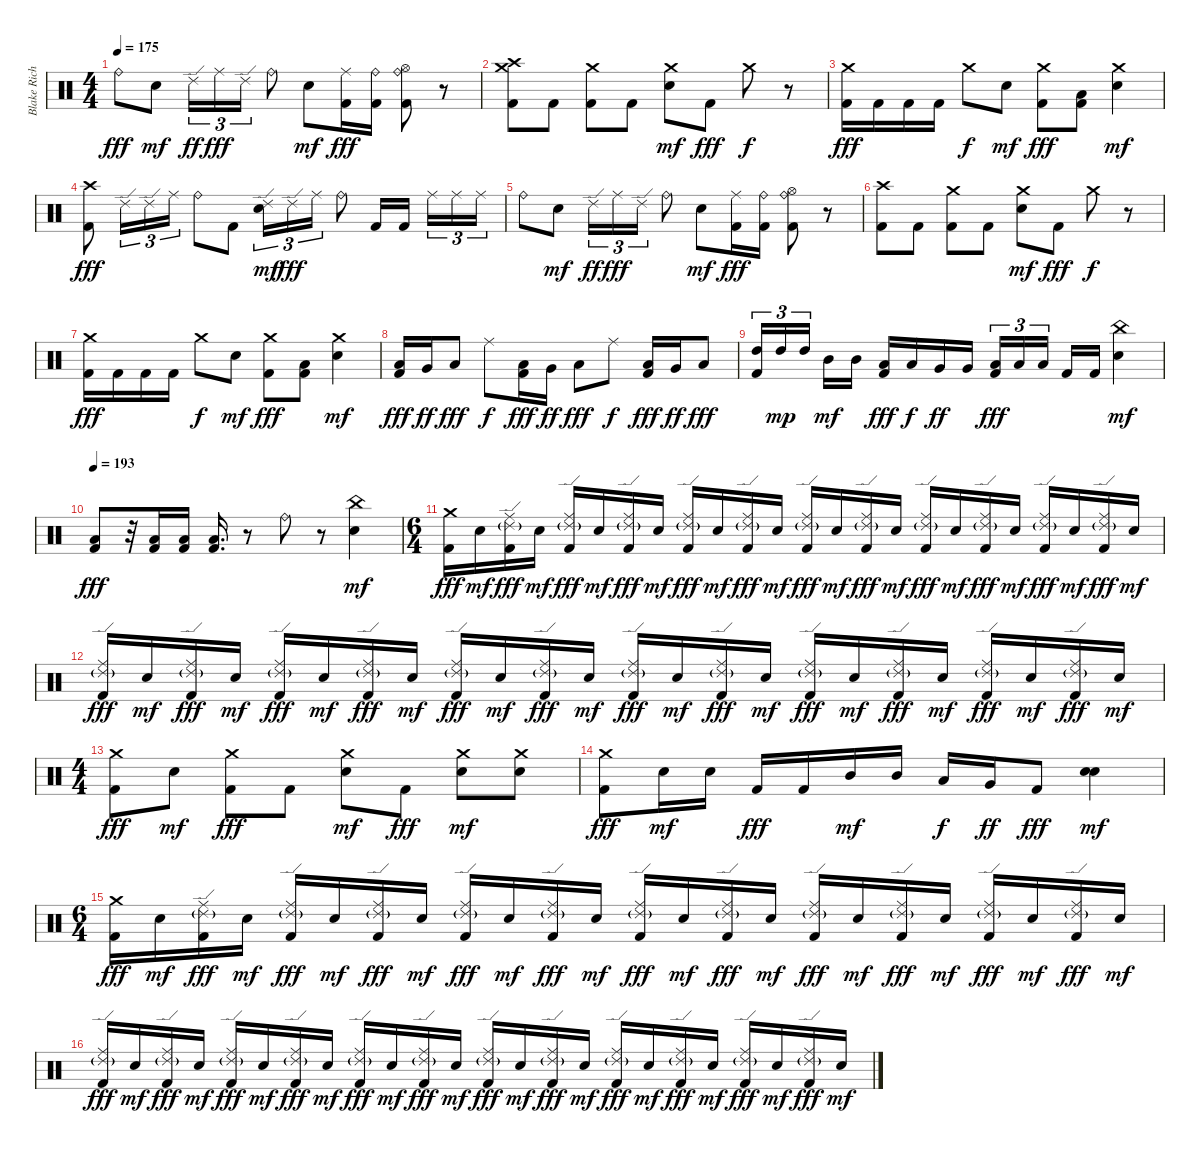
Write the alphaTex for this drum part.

\track ("Blake Richardson" "Blake Rich") {instrument percussion}
\staff {score}
\articulation defaults
\ts (4 4)
\tempo 175
\clef neutral
\ks c "Ride (bell)".8{dy fff} "Electric Snare (hit)".8{dy mf} "Ride (edge) 2".16{tu (3 2) dy ff} "Ride (middle)".16{tu (3 2) dy fff} "Ride (edge) 2".16{tu (3 2)} "Ride (bell)".8 "Electric Snare (hit)".8{dy mf}
("Ride (middle)" "Kick (hit) 2").16{dy fff} ("Ride (bell)" "Kick (hit) 2").16 ("Ride (bell)" "Hi-Hat (open)" "Kick (hit) 2").8 r.8 |
("Crash medium (hit)" "Crash high (hit)" "Kick (hit) 2").8 "Kick (hit) 2".8 ("Crash medium (hit)" "Kick (hit) 2").8 "Kick (hit) 2".8 ("Crash medium (hit)" "Electric Snare (hit)").8{dy mf} "Kick (hit) 2".8{dy fff} "Crash medium (hit)".8{dy f} r.8 |
("Crash medium (hit)" "Kick (hit) 2").16{dy fff} "Kick (hit) 2".16 "Kick (hit) 2".16 "Kick (hit) 2".16 "Crash medium (hit)".8{dy f} "Electric Snare (hit)".8{dy mf} ("Crash medium (hit)" "Kick (hit) 2").8{dy fff} ("Low Tom (hit)" "Kick (hit) 2").8 ("Crash medium (hit)" "Electric Snare (hit)").4{dy mf} |
("Crash high (hit)" "Kick (hit) 2").8{dy fff} "Ride (edge) 2".16{tu (3 2)} "Ride (edge) 2".16{tu (3 2)} "Ride (middle)".16{tu (3 2)} "Ride (bell)".8 "Kick (hit) 2".8 ("Ride (edge) 2" "Electric Snare (hit)").16{tu (3 2) dy mf} "Ride (edge) 2".16{tu (3 2) dy fff} "Ride (middle)".16{tu (3 2)} "Ride (bell)".8 "Kick (hit) 2".16 "Kick (hit) 2".16 "Ride (middle)".16{tu (3 2)} "Ride (middle)".16{tu (3 2)} "Ride (middle)".16{tu (3 2)} |
"Ride (bell)".8 "Electric Snare (hit)".8{dy mf} "Ride (edge) 2".16{tu (3 2) dy ff} "Ride (middle)".16{tu (3 2) dy fff} "Ride (edge) 2".16{tu (3 2)} "Ride (bell)".8 "Electric Snare (hit)".8{dy mf} ("Ride (middle)" "Kick (hit) 2").16{dy fff} ("Ride (bell)" "Kick (hit) 2").16 ("Ride (bell)" "Hi-Hat (open)" "Kick (hit) 2").8 r.8 |
("Crash high (hit)" "Kick (hit) 2").8 "Kick (hit) 2".8 ("Crash medium (hit)" "Kick (hit) 2").8 "Kick (hit) 2".8 ("Crash medium (hit)" "Electric Snare (hit)").8{dy mf} "Kick (hit) 2".8{dy fff} "Crash medium (hit)".8{dy f} r.8 |
("Crash medium (hit)" "Kick (hit) 2").16{dy fff} "Kick (hit) 2".16 "Kick (hit) 2".16 "Kick (hit) 2".16 "Crash medium (hit)".8{dy f} "Electric Snare (hit)".8{dy mf} ("Crash medium (hit)" "Kick (hit) 2").8{dy fff} ("Low Tom (hit)" "Kick (hit) 2").8 ("Crash medium (hit)" "Electric Snare (hit)").4{dy mf} |
("Low Tom (hit)" "Kick (hit) 2").16{dy fff} "Very Low Tom (hit)".16{dy ff} "Low Floor Tom (hit)".8{dy fff} "Ride (middle)".8{dy f} ("Low Tom (hit)" "Kick (hit) 2").16{dy fff} "Very Low Tom (hit)".16{dy ff} "Low Floor Tom (hit)".8{dy fff} "Ride (middle)".8{dy f} ("Low Tom (hit)" "Kick (hit) 2").16{dy fff} "Very Low Tom (hit)".16{dy ff} "Low Floor Tom (hit)".8{dy fff} |
("High Tom (hit)" "Kick (hit) 2").16{tu (3 2)} "High Tom (hit)".16{tu (3 2) dy mp} "High Tom (hit)".16{tu (3 2)} "Mid Tom (hit)".16{dy mf} "Mid Tom (hit)".16 ("Low Tom (hit)" "Kick (hit) 2").16{dy fff} "Low Tom (hit)".16{dy f} "Very Low Tom (hit)".16{dy ff} "Very Low Tom (hit)".16 ("Low Floor Tom (hit)" "Kick (hit) 2").16{tu (3 2) dy fff} "Low Floor Tom (hit)".16{tu (3 2)} "Low Floor Tom (hit)".16{tu (3 2)} "Kick (hit) 2".16 "Kick (hit) 2".16 ("China (hit)" "Electric Snare (hit)").4{dy mf} |
\tempo 193
("Low Floor Tom (hit)" "Kick (hit) 2").8{dy fff} r.32 ("Low Floor Tom (hit)" "Kick (hit) 2").16 ("Low Floor Tom (hit)" "Kick (hit) 2").16 ("Low Floor Tom (hit)" "Kick (hit) 2").16{d} r.8 "Ride (bell)".8 r.8 ("China (hit)" "Electric Snare (hit)").4{dy mf} |
\ts (6 4)
("Crash medium (hit)" "Kick (hit) 2").16{dy fff} "Electric Snare (hit)".16{dy mf} ("Ride (edge) 2"{g} "Ride (middle)" "Kick (hit) 2").16{dy fff} "Electric Snare (hit)".16{dy mf} ("Ride (edge) 2"{g} "Ride (middle)" "Kick (hit) 2").16{dy fff} "Electric Snare (hit)".16{dy mf} ("Ride (edge) 2"{g} "Ride (middle)" "Kick (hit) 2").16{dy fff} "Electric Snare (hit)".16{dy mf} ("Ride (edge) 2"{g} "Ride (middle)" "Kick (hit) 2").16{dy fff} "Electric Snare (hit)".16{dy mf} ("Ride (edge) 2"{g} "Ride (middle)" "Kick (hit) 2").16{dy fff} "Electric Snare (hit)".16{dy mf} ("Ride (edge) 2"{g} "Ride (middle)" "Kick (hit) 2").16{dy fff} "Electric Snare (hit)".16{dy mf} ("Ride (edge) 2"{g} "Ride (middle)" "Kick (hit) 2").16{dy fff} "Electric Snare (hit)".16{dy mf} ("Ride (edge) 2"{g} "Ride (middle)" "Kick (hit) 2").16{dy fff} "Electric Snare (hit)".16{dy mf} ("Ride (edge) 2"{g} "Ride (middle)" "Kick (hit) 2").16{dy fff} "Electric Snare (hit)".16{dy mf} ("Ride (edge) 2"{g} "Ride (middle)" "Kick (hit) 2").16{dy fff} "Electric Snare (hit)".16{dy mf} ("Ride (edge) 2"{g} "Ride (middle)" "Kick (hit) 2").16{dy fff} "Electric Snare (hit)".16{dy mf} |
("Ride (edge) 2"{g} "Ride (middle)" "Kick (hit) 2").16{dy fff} "Electric Snare (hit)".16{dy mf} ("Ride (edge) 2"{g} "Ride (middle)" "Kick (hit) 2").16{dy fff} "Electric Snare (hit)".16{dy mf} ("Ride (edge) 2"{g} "Ride (middle)" "Kick (hit) 2").16{dy fff} "Electric Snare (hit)".16{dy mf} ("Ride (edge) 2"{g} "Ride (middle)" "Kick (hit) 2").16{dy fff} "Electric Snare (hit)".16{dy mf} ("Ride (edge) 2"{g} "Ride (middle)" "Kick (hit) 2").16{dy fff} "Electric Snare (hit)".16{dy mf} ("Ride (edge) 2"{g} "Ride (middle)" "Kick (hit) 2").16{dy fff} "Electric Snare (hit)".16{dy mf} ("Ride (edge) 2"{g} "Ride (middle)" "Kick (hit) 2").16{dy fff} "Electric Snare (hit)".16{dy mf} ("Ride (edge) 2"{g} "Ride (middle)" "Kick (hit) 2").16{dy fff} "Electric Snare (hit)".16{dy mf} ("Ride (edge) 2"{g} "Ride (middle)" "Kick (hit) 2").16{dy fff} "Electric Snare (hit)".16{dy mf} ("Ride (edge) 2"{g} "Ride (middle)" "Kick (hit) 2").16{dy fff} "Electric Snare (hit)".16{dy mf} ("Ride (edge) 2"{g} "Ride (middle)" "Kick (hit) 2").16{dy fff} "Electric Snare (hit)".16{dy mf} ("Ride (edge) 2"{g} "Ride (middle)" "Kick (hit) 2").16{dy fff} "Electric Snare (hit)".16{dy mf} |
\ts (4 4)
("Crash medium (hit)" "Kick (hit) 2").8{dy fff} "Electric Snare (hit)".8{dy mf} ("Crash medium (hit)" "Kick (hit) 2").8{dy fff} "Kick (hit) 2".8 ("Crash medium (hit)" "Electric Snare (hit)").8{dy mf} "Kick (hit) 2".8{dy fff} ("Crash medium (hit)" "Electric Snare (hit)").8{dy mf} ("Crash medium (hit)" "Electric Snare (hit)").8 |
("Crash medium (hit)" "Kick (hit) 2").8{dy fff} "Electric Snare (hit)".16{dy mf} "Electric Snare (hit)".16 "Kick (hit) 2".16{dy fff} "Kick (hit) 2".16 "Mid Tom (hit)".16{dy mf} "Mid Tom (hit)".16 "Low Tom (hit)".16{dy f} "Very Low Tom (hit)".16{dy ff} "Kick (hit) 2".8{dy fff} ("Electric Snare (hit)" "Electric Snare (hit)").4{bu 480 dy mf} |
\ts (6 4)
("Crash medium (hit)" "Kick (hit) 2").16{dy fff} "Electric Snare (hit)".16{dy mf} ("Ride (edge) 2"{g} "Ride (middle)" "Kick (hit) 2").16{dy fff} "Electric Snare (hit)".16{dy mf} ("Ride (edge) 2"{g} "Ride (middle)" "Kick (hit) 2").16{dy fff} "Electric Snare (hit)".16{dy mf} ("Ride (edge) 2"{g} "Ride (middle)" "Kick (hit) 2").16{dy fff} "Electric Snare (hit)".16{dy mf} ("Ride (edge) 2"{g} "Ride (middle)" "Kick (hit) 2").16{dy fff} "Electric Snare (hit)".16{dy mf} ("Ride (edge) 2"{g} "Ride (middle)" "Kick (hit) 2").16{dy fff} "Electric Snare (hit)".16{dy mf} ("Ride (edge) 2"{g} "Ride (middle)" "Kick (hit) 2").16{dy fff} "Electric Snare (hit)".16{dy mf} ("Ride (edge) 2"{g} "Ride (middle)" "Kick (hit) 2").16{dy fff} "Electric Snare (hit)".16{dy mf} ("Ride (edge) 2"{g} "Ride (middle)" "Kick (hit) 2").16{dy fff} "Electric Snare (hit)".16{dy mf} ("Ride (edge) 2"{g} "Ride (middle)" "Kick (hit) 2").16{dy fff} "Electric Snare (hit)".16{dy mf} ("Ride (edge) 2"{g} "Ride (middle)" "Kick (hit) 2").16{dy fff} "Electric Snare (hit)".16{dy mf} ("Ride (edge) 2"{g} "Ride (middle)" "Kick (hit) 2").16{dy fff} "Electric Snare (hit)".16{dy mf} |
("Ride (edge) 2"{g} "Ride (middle)" "Kick (hit) 2").16{dy fff} "Electric Snare (hit)".16{dy mf} ("Ride (edge) 2"{g} "Ride (middle)" "Kick (hit) 2").16{dy fff} "Electric Snare (hit)".16{dy mf} ("Ride (edge) 2"{g} "Ride (middle)" "Kick (hit) 2").16{dy fff} "Electric Snare (hit)".16{dy mf} ("Ride (edge) 2"{g} "Ride (middle)" "Kick (hit) 2").16{dy fff} "Electric Snare (hit)".16{dy mf} ("Ride (edge) 2"{g} "Ride (middle)" "Kick (hit) 2").16{dy fff} "Electric Snare (hit)".16{dy mf} ("Ride (edge) 2"{g} "Ride (middle)" "Kick (hit) 2").16{dy fff} "Electric Snare (hit)".16{dy mf} ("Ride (edge) 2"{g} "Ride (middle)" "Kick (hit) 2").16{dy fff} "Electric Snare (hit)".16{dy mf} ("Ride (edge) 2"{g} "Ride (middle)" "Kick (hit) 2").16{dy fff} "Electric Snare (hit)".16{dy mf} ("Ride (edge) 2"{g} "Ride (middle)" "Kick (hit) 2").16{dy fff} "Electric Snare (hit)".16{dy mf} ("Ride (edge) 2"{g} "Ride (middle)" "Kick (hit) 2").16{dy fff} "Electric Snare (hit)".16{dy mf} ("Ride (edge) 2"{g} "Ride (middle)" "Kick (hit) 2").16{dy fff} "Electric Snare (hit)".16{dy mf} ("Ride (edge) 2"{g} "Ride (middle)" "Kick (hit) 2").16{dy fff} "Electric Snare (hit)".16{dy mf}
